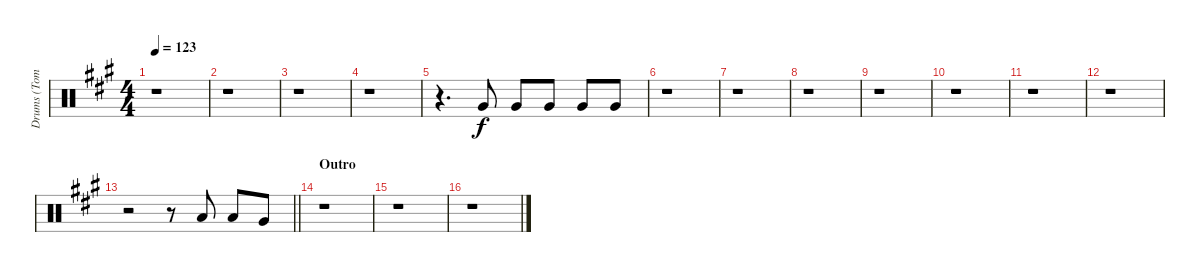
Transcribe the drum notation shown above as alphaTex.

\track ("Drums (Toms" "Drums (Tom") {instrument percussion}
\staff {score}
\articulation defaults
\ts (4 4)
\tempo 123
\clef neutral
\ks a
r.1{dy f} |
r.1 |
r.1 |
r.1 |
r.4{d} "Very Low Tom (hit)".8 "Very Low Tom (hit)".8 "Very Low Tom (hit)".8 "Very Low Tom (hit)".8 "Very Low Tom (hit)".8 |
r.1 |
r.1 |
r.1 |
r.1 |
r.1 |
r.1 |
r.1 |
\barLineRight lightlight
r.2 r.8 "Low Tom (hit)".8 "Low Tom (hit)".8 "Very Low Tom (hit)".8 |
\section ("" "Outro")
r.1 |
r.1 |
r.1
